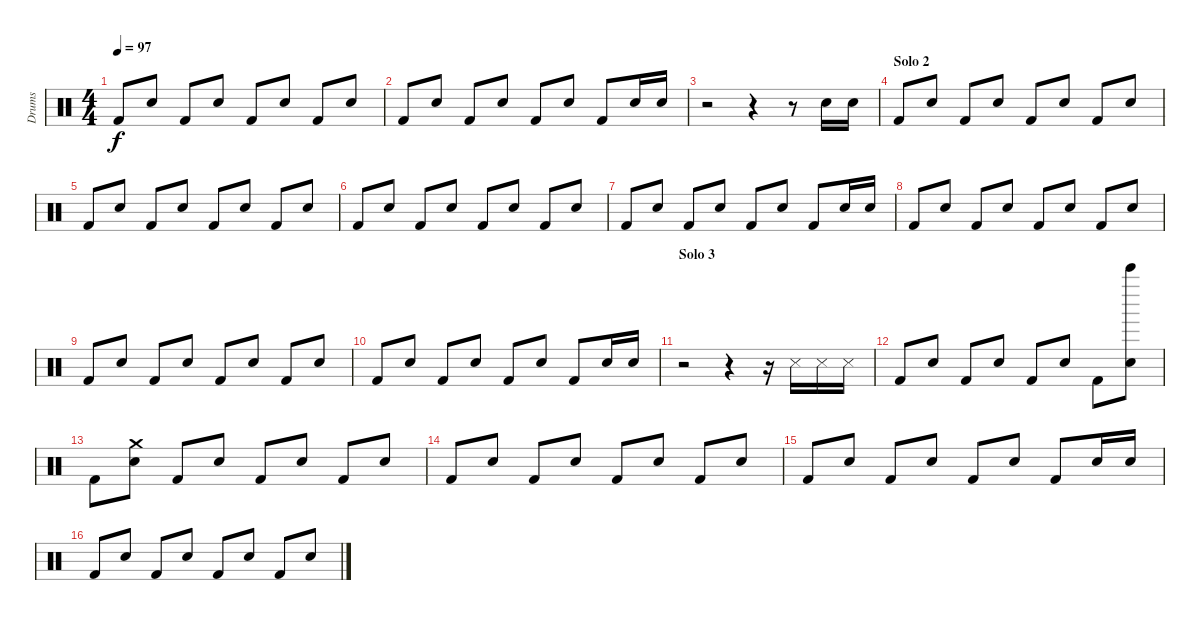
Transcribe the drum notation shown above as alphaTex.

\track ("Drums" "Drums") {instrument percussion}
\staff {score}
\articulation defaults
\ts (4 4)
\tempo 97
\clef neutral
\ks c "Kick (hit) 2".8{dy f} "Electric Snare (hit)".8 "Kick (hit) 2".8 "Electric Snare (hit)".8 "Kick (hit) 2".8 "Electric Snare (hit)".8 "Kick (hit) 2".8 "Electric Snare (hit)".8
|
"Kick (hit) 2".8 "Electric Snare (hit)".8 "Kick (hit) 2".8 "Electric Snare (hit)".8 "Kick (hit) 2".8 "Electric Snare (hit)".8 "Kick (hit) 2".8 "Electric Snare (hit)".16 "Electric Snare (hit)".16 |
r.2 r.4 r.8 "Electric Snare (hit)".16 "Electric Snare (hit)".16 |
\section ("" "Solo 2")
"Kick (hit) 2".8 "Electric Snare (hit)".8 "Kick (hit) 2".8 "Electric Snare (hit)".8 "Kick (hit) 2".8 "Electric Snare (hit)".8 "Kick (hit) 2".8 "Electric Snare (hit)".8 |
"Kick (hit) 2".8 "Electric Snare (hit)".8 "Kick (hit) 2".8 "Electric Snare (hit)".8 "Kick (hit) 2".8 "Electric Snare (hit)".8 "Kick (hit) 2".8 "Electric Snare (hit)".8 |
"Kick (hit) 2".8 "Electric Snare (hit)".8 "Kick (hit) 2".8 "Electric Snare (hit)".8 "Kick (hit) 2".8 "Electric Snare (hit)".8 "Kick (hit) 2".8 "Electric Snare (hit)".8 |
"Kick (hit) 2".8 "Electric Snare (hit)".8 "Kick (hit) 2".8 "Electric Snare (hit)".8 "Kick (hit) 2".8 "Electric Snare (hit)".8 "Kick (hit) 2".8 "Electric Snare (hit)".16 "Electric Snare (hit)".16 |
"Kick (hit) 2".8 "Electric Snare (hit)".8 "Kick (hit) 2".8 "Electric Snare (hit)".8 "Kick (hit) 2".8 "Electric Snare (hit)".8 "Kick (hit) 2".8 "Electric Snare (hit)".8 |
"Kick (hit) 2".8 "Electric Snare (hit)".8 "Kick (hit) 2".8 "Electric Snare (hit)".8 "Kick (hit) 2".8 "Electric Snare (hit)".8 "Kick (hit) 2".8 "Electric Snare (hit)".8 |
"Kick (hit) 2".8 "Electric Snare (hit)".8 "Kick (hit) 2".8 "Electric Snare (hit)".8 "Kick (hit) 2".8 "Electric Snare (hit)".8 "Kick (hit) 2".8 "Electric Snare (hit)".16 "Electric Snare (hit)".16 |
\section ("" "Solo 3")
r.2 r.4 r.16 "Snare (side stick) 3".16 "Snare (side stick) 3".16 "Snare (side stick) 3".16 |
"Kick (hit) 2".8 "Electric Snare (hit)".8 "Kick (hit) 2".8 "Electric Snare (hit)".8 "Kick (hit) 2".8 "Electric Snare (hit)".8 "Kick (hit) 2".8 ("Electric Snare (hit)" "Bell Tree (hit)").8 |
"Kick (hit) 2".8 ("Electric Snare (hit)" "Crash medium (hit)").8 "Kick (hit) 2".8 "Electric Snare (hit)".8 "Kick (hit) 2".8 "Electric Snare (hit)".8 "Kick (hit) 2".8 "Electric Snare (hit)".8 |
"Kick (hit) 2".8 "Electric Snare (hit)".8 "Kick (hit) 2".8 "Electric Snare (hit)".8 "Kick (hit) 2".8 "Electric Snare (hit)".8 "Kick (hit) 2".8 "Electric Snare (hit)".8 |
"Kick (hit) 2".8 "Electric Snare (hit)".8 "Kick (hit) 2".8 "Electric Snare (hit)".8 "Kick (hit) 2".8 "Electric Snare (hit)".8 "Kick (hit) 2".8 "Electric Snare (hit)".16 "Electric Snare (hit)".16 |
"Kick (hit) 2".8 "Electric Snare (hit)".8 "Kick (hit) 2".8 "Electric Snare (hit)".8 "Kick (hit) 2".8 "Electric Snare (hit)".8 "Kick (hit) 2".8 "Electric Snare (hit)".8
